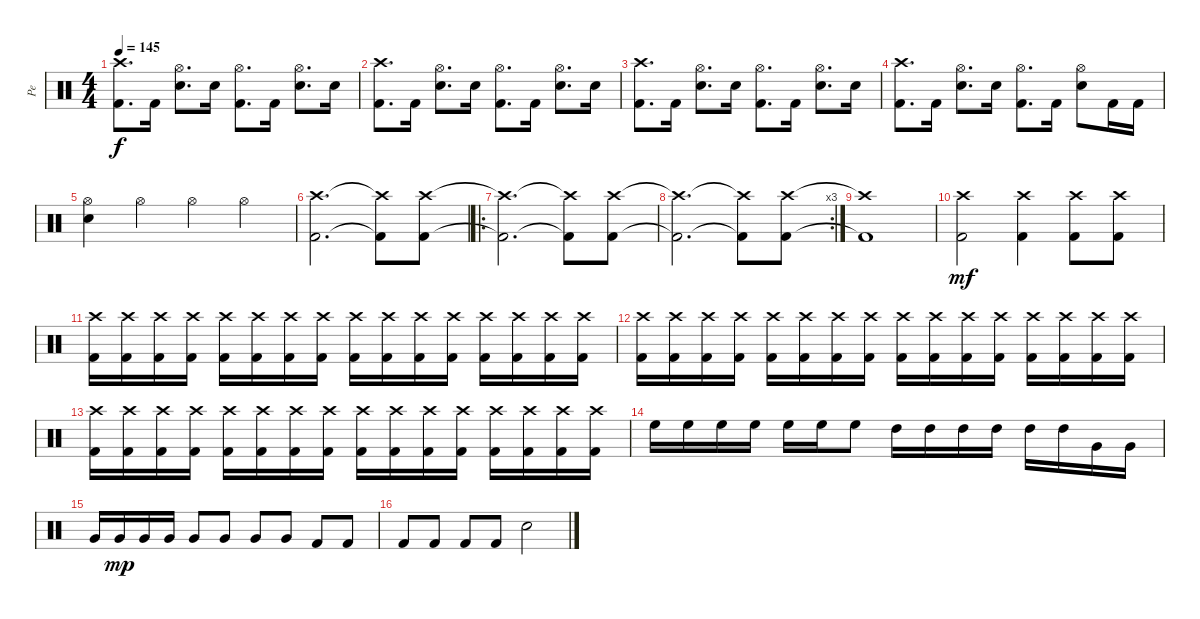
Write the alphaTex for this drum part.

\track ("Pe" "Pe") {instrument percussion}
\staff {score}
\articulation defaults
\ts (4 4)
\tempo 145
\clef neutral
\ks c
("Kick (hit) 2" "Crash high (hit)").8{d dy f} "Kick (hit) 2".16 ("Snare (hit) 2" "Hi-Hat (open)").8{d} "Snare (hit) 2".16 ("Kick (hit) 2" "Hi-Hat (open)").8{d} "Kick (hit) 2".16 ("Snare (hit) 2" "Hi-Hat (open)").8{d} "Snare (hit) 2".16 |
("Kick (hit) 2" "Crash high (hit)").8{d} "Kick (hit) 2".16 ("Snare (hit) 2" "Hi-Hat (open)").8{d} "Snare (hit) 2".16 ("Kick (hit) 2" "Hi-Hat (open)").8{d} "Kick (hit) 2".16 ("Snare (hit) 2" "Hi-Hat (open)").8{d} "Snare (hit) 2".16 |
("Kick (hit) 2" "Crash high (hit)").8{d} "Kick (hit) 2".16 ("Snare (hit) 2" "Hi-Hat (open)").8{d} "Snare (hit) 2".16 ("Kick (hit) 2" "Hi-Hat (open)").8{d} "Kick (hit) 2".16 ("Snare (hit) 2" "Hi-Hat (open)").8{d} "Snare (hit) 2".16 |
("Kick (hit) 2" "Crash high (hit)").8{d} "Kick (hit) 2".16 ("Snare (hit) 2" "Hi-Hat (open)").8{d} "Snare (hit) 2".16 ("Kick (hit) 2" "Hi-Hat (open)").8{d} "Kick (hit) 2".16 ("Snare (hit) 2" "Hi-Hat (open)").8 "Kick (hit) 2".16 "Kick (hit) 2".16 |
("Snare (hit) 2" "Hi-Hat (open)").4 "Hi-Hat (open)".4 "Hi-Hat (open)".4 "Hi-Hat (open)".4 |
("Crash high (hit)" "Kick (hit) 2").2{d} ("Crash high (hit)"{t} "Kick (hit) 2"{t}).8 ("Crash high (hit)" "Kick (hit) 2").8 |
\ro
("Crash high (hit)"{t} "Kick (hit) 2"{t}).2{d} ("Crash high (hit)"{t} "Kick (hit) 2"{t}).8 ("Crash high (hit)" "Kick (hit) 2").8 |
\rc 3
("Crash high (hit)"{t} "Kick (hit) 2"{t}).2{d} ("Crash high (hit)"{t} "Kick (hit) 2"{t}).8 ("Crash high (hit)" "Kick (hit) 2").8 |
("Crash high (hit)"{t} "Kick (hit) 2"{t}).1 |
("Crash high (hit)" "Kick (hit) 2").2{dy mf} ("Crash high (hit)" "Kick (hit) 2").4 ("Crash high (hit)" "Kick (hit) 2").8 ("Crash high (hit)" "Kick (hit) 2").8 |
("Crash high (hit)" "Kick (hit) 2").16 ("Crash high (hit)" "Kick (hit) 2").16 ("Crash high (hit)" "Kick (hit) 2").16 ("Crash high (hit)" "Kick (hit) 2").16 ("Crash high (hit)" "Kick (hit) 2").16 ("Crash high (hit)" "Kick (hit) 2").16 ("Crash high (hit)" "Kick (hit) 2").16 ("Crash high (hit)" "Kick (hit) 2").16 ("Crash high (hit)" "Kick (hit) 2").16 ("Crash high (hit)" "Kick (hit) 2").16 ("Crash high (hit)" "Kick (hit) 2").16 ("Crash high (hit)" "Kick (hit) 2").16 ("Crash high (hit)" "Kick (hit) 2").16 ("Crash high (hit)" "Kick (hit) 2").16 ("Crash high (hit)" "Kick (hit) 2").16 ("Crash high (hit)" "Kick (hit) 2").16 |
("Crash high (hit)" "Kick (hit) 2").16 ("Crash high (hit)" "Kick (hit) 2").16 ("Crash high (hit)" "Kick (hit) 2").16 ("Crash high (hit)" "Kick (hit) 2").16 ("Crash high (hit)" "Kick (hit) 2").16 ("Crash high (hit)" "Kick (hit) 2").16 ("Crash high (hit)" "Kick (hit) 2").16 ("Crash high (hit)" "Kick (hit) 2").16 ("Crash high (hit)" "Kick (hit) 2").16 ("Crash high (hit)" "Kick (hit) 2").16 ("Crash high (hit)" "Kick (hit) 2").16 ("Crash high (hit)" "Kick (hit) 2").16 ("Crash high (hit)" "Kick (hit) 2").16 ("Crash high (hit)" "Kick (hit) 2").16 ("Crash high (hit)" "Kick (hit) 2").16 ("Crash high (hit)" "Kick (hit) 2").16 |
("Crash high (hit)" "Kick (hit) 2").16 ("Crash high (hit)" "Kick (hit) 2").16 ("Crash high (hit)" "Kick (hit) 2").16 ("Crash high (hit)" "Kick (hit) 2").16 ("Crash high (hit)" "Kick (hit) 2").16 ("Crash high (hit)" "Kick (hit) 2").16 ("Crash high (hit)" "Kick (hit) 2").16 ("Crash high (hit)" "Kick (hit) 2").16 ("Crash high (hit)" "Kick (hit) 2").16 ("Crash high (hit)" "Kick (hit) 2").16 ("Crash high (hit)" "Kick (hit) 2").16 ("Crash high (hit)" "Kick (hit) 2").16 ("Crash high (hit)" "Kick (hit) 2").16 ("Crash high (hit)" "Kick (hit) 2").16 ("Crash high (hit)" "Kick (hit) 2").16 ("Crash high (hit)" "Kick (hit) 2").16 |
"High Floor Tom (hit)".16 "High Floor Tom (hit)".16 "High Floor Tom (hit)".16 "High Floor Tom (hit)".16 "High Floor Tom (hit)".16 "High Floor Tom (hit)".16 "High Floor Tom (hit)".8 "High Tom (hit)".16 "High Tom (hit)".16 "High Tom (hit)".16 "High Tom (hit)".16 "High Tom (hit)".16 "High Tom (hit)".16 "Very Low Tom (hit)".16 "Very Low Tom (hit)".16 |
"Very Low Tom (hit)".16 "Very Low Tom (hit)".16{dy mp} "Very Low Tom (hit)".16 "Very Low Tom (hit)".16 "Very Low Tom (hit)".8 "Very Low Tom (hit)".8 "Very Low Tom (hit)".8 "Very Low Tom (hit)".8 "Kick (hit) 2".8 "Kick (hit) 2".8 |
"Kick (hit) 2".8 "Kick (hit) 2".8 "Kick (hit) 2".8 "Kick (hit) 2".8 "Snare (hit) 2".2
